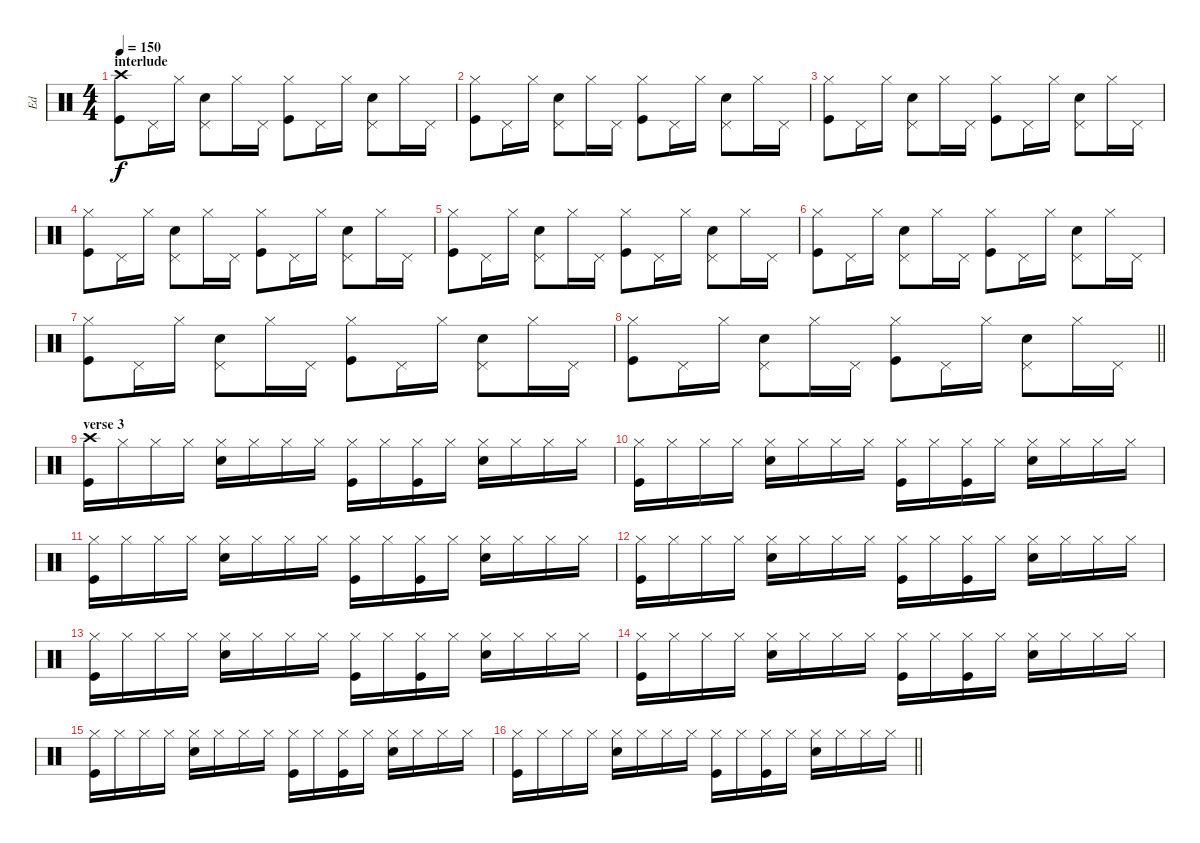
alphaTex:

\track ("Ed" "Ed") {instrument percussion}
\staff {score}
\articulation defaults
\ts (4 4)
\section ("" "interlude")
\tempo 150
\clef neutral
\ks c
("Crash high (hit)" "Kick (hit)").8{dy f} "Pedal Hi-Hat (hit)".16 "Hi-Hat (closed)".16 ("Pedal Hi-Hat (hit)" "Electric Snare (hit)").8 "Hi-Hat (closed)".16 "Pedal Hi-Hat (hit)".16 ("Hi-Hat (closed)" "Kick (hit)").8 "Pedal Hi-Hat (hit)".16 "Hi-Hat (closed)".16 ("Pedal Hi-Hat (hit)" "Electric Snare (hit)").8 "Hi-Hat (closed)".16 "Pedal Hi-Hat (hit)".16 |
("Hi-Hat (closed)" "Kick (hit)").8 "Pedal Hi-Hat (hit)".16 "Hi-Hat (closed)".16 ("Pedal Hi-Hat (hit)" "Electric Snare (hit)").8 "Hi-Hat (closed)".16 "Pedal Hi-Hat (hit)".16 ("Hi-Hat (closed)" "Kick (hit)").8 "Pedal Hi-Hat (hit)".16 "Hi-Hat (closed)".16 ("Pedal Hi-Hat (hit)" "Electric Snare (hit)").8 "Hi-Hat (closed)".16 "Pedal Hi-Hat (hit)".16 |
("Hi-Hat (closed)" "Kick (hit)").8 "Pedal Hi-Hat (hit)".16 "Hi-Hat (closed)".16 ("Pedal Hi-Hat (hit)" "Electric Snare (hit)").8 "Hi-Hat (closed)".16 "Pedal Hi-Hat (hit)".16 ("Hi-Hat (closed)" "Kick (hit)").8 "Pedal Hi-Hat (hit)".16 "Hi-Hat (closed)".16 ("Pedal Hi-Hat (hit)" "Electric Snare (hit)").8 "Hi-Hat (closed)".16 "Pedal Hi-Hat (hit)".16 |
("Hi-Hat (closed)" "Kick (hit)").8 "Pedal Hi-Hat (hit)".16 "Hi-Hat (closed)".16 ("Pedal Hi-Hat (hit)" "Electric Snare (hit)").8 "Hi-Hat (closed)".16 "Pedal Hi-Hat (hit)".16 ("Hi-Hat (closed)" "Kick (hit)").8 "Pedal Hi-Hat (hit)".16 "Hi-Hat (closed)".16 ("Pedal Hi-Hat (hit)" "Electric Snare (hit)").8 "Hi-Hat (closed)".16 "Pedal Hi-Hat (hit)".16 |
("Hi-Hat (closed)" "Kick (hit)").8 "Pedal Hi-Hat (hit)".16 "Hi-Hat (closed)".16 ("Pedal Hi-Hat (hit)" "Electric Snare (hit)").8 "Hi-Hat (closed)".16 "Pedal Hi-Hat (hit)".16 ("Hi-Hat (closed)" "Kick (hit)").8 "Pedal Hi-Hat (hit)".16 "Hi-Hat (closed)".16 ("Pedal Hi-Hat (hit)" "Electric Snare (hit)").8 "Hi-Hat (closed)".16 "Pedal Hi-Hat (hit)".16 |
("Hi-Hat (closed)" "Kick (hit)").8 "Pedal Hi-Hat (hit)".16 "Hi-Hat (closed)".16 ("Pedal Hi-Hat (hit)" "Electric Snare (hit)").8 "Hi-Hat (closed)".16 "Pedal Hi-Hat (hit)".16 ("Hi-Hat (closed)" "Kick (hit)").8 "Pedal Hi-Hat (hit)".16 "Hi-Hat (closed)".16 ("Pedal Hi-Hat (hit)" "Electric Snare (hit)").8 "Hi-Hat (closed)".16 "Pedal Hi-Hat (hit)".16 |
("Hi-Hat (closed)" "Kick (hit)").8 "Pedal Hi-Hat (hit)".16 "Hi-Hat (closed)".16 ("Pedal Hi-Hat (hit)" "Electric Snare (hit)").8 "Hi-Hat (closed)".16 "Pedal Hi-Hat (hit)".16 ("Hi-Hat (closed)" "Kick (hit)").8 "Pedal Hi-Hat (hit)".16 "Hi-Hat (closed)".16 ("Pedal Hi-Hat (hit)" "Electric Snare (hit)").8 "Hi-Hat (closed)".16 "Pedal Hi-Hat (hit)".16 |
\barLineRight lightlight
("Hi-Hat (closed)" "Kick (hit)").8 "Pedal Hi-Hat (hit)".16 "Hi-Hat (closed)".16 ("Pedal Hi-Hat (hit)" "Electric Snare (hit)").8 "Hi-Hat (closed)".16 "Pedal Hi-Hat (hit)".16 ("Hi-Hat (closed)" "Kick (hit)").8 "Pedal Hi-Hat (hit)".16 "Hi-Hat (closed)".16 ("Pedal Hi-Hat (hit)" "Electric Snare (hit)").8 "Hi-Hat (closed)".16 "Pedal Hi-Hat (hit)".16 |
\section ("" "verse 3")
("Crash high (hit)" "Kick (hit)").16 "Hi-Hat (closed)".16 "Hi-Hat (closed)".16 "Hi-Hat (closed)".16 ("Hi-Hat (closed)" "Electric Snare (hit)").16 "Hi-Hat (closed)".16 "Hi-Hat (closed)".16 "Hi-Hat (closed)".16 ("Hi-Hat (closed)" "Kick (hit)").16 "Hi-Hat (closed)".16 ("Hi-Hat (closed)" "Kick (hit)").16 "Hi-Hat (closed)".16 ("Hi-Hat (closed)" "Electric Snare (hit)").16 "Hi-Hat (closed)".16 "Hi-Hat (closed)".16 "Hi-Hat (closed)".16 |
("Hi-Hat (closed)" "Kick (hit)").16 "Hi-Hat (closed)".16 "Hi-Hat (closed)".16 "Hi-Hat (closed)".16 ("Hi-Hat (closed)" "Electric Snare (hit)").16 "Hi-Hat (closed)".16 "Hi-Hat (closed)".16 "Hi-Hat (closed)".16 ("Hi-Hat (closed)" "Kick (hit)").16 "Hi-Hat (closed)".16 ("Hi-Hat (closed)" "Kick (hit)").16 "Hi-Hat (closed)".16 ("Hi-Hat (closed)" "Electric Snare (hit)").16 "Hi-Hat (closed)".16 "Hi-Hat (closed)".16 "Hi-Hat (closed)".16 |
("Hi-Hat (closed)" "Kick (hit)").16 "Hi-Hat (closed)".16 "Hi-Hat (closed)".16 "Hi-Hat (closed)".16 ("Hi-Hat (closed)" "Electric Snare (hit)").16 "Hi-Hat (closed)".16 "Hi-Hat (closed)".16 "Hi-Hat (closed)".16 ("Hi-Hat (closed)" "Kick (hit)").16 "Hi-Hat (closed)".16 ("Hi-Hat (closed)" "Kick (hit)").16 "Hi-Hat (closed)".16 ("Hi-Hat (closed)" "Electric Snare (hit)").16 "Hi-Hat (closed)".16 "Hi-Hat (closed)".16 "Hi-Hat (closed)".16 |
("Hi-Hat (closed)" "Kick (hit)").16 "Hi-Hat (closed)".16 "Hi-Hat (closed)".16 "Hi-Hat (closed)".16 ("Hi-Hat (closed)" "Electric Snare (hit)").16 "Hi-Hat (closed)".16 "Hi-Hat (closed)".16 "Hi-Hat (closed)".16 ("Hi-Hat (closed)" "Kick (hit)").16 "Hi-Hat (closed)".16 ("Hi-Hat (closed)" "Kick (hit)").16 "Hi-Hat (closed)".16 ("Hi-Hat (closed)" "Electric Snare (hit)").16 "Hi-Hat (closed)".16 "Hi-Hat (closed)".16 "Hi-Hat (closed)".16 |
("Hi-Hat (closed)" "Kick (hit)").16 "Hi-Hat (closed)".16 "Hi-Hat (closed)".16 "Hi-Hat (closed)".16 ("Hi-Hat (closed)" "Electric Snare (hit)").16 "Hi-Hat (closed)".16 "Hi-Hat (closed)".16 "Hi-Hat (closed)".16 ("Hi-Hat (closed)" "Kick (hit)").16 "Hi-Hat (closed)".16 ("Hi-Hat (closed)" "Kick (hit)").16 "Hi-Hat (closed)".16 ("Hi-Hat (closed)" "Electric Snare (hit)").16 "Hi-Hat (closed)".16 "Hi-Hat (closed)".16 "Hi-Hat (closed)".16 |
("Hi-Hat (closed)" "Kick (hit)").16 "Hi-Hat (closed)".16 "Hi-Hat (closed)".16 "Hi-Hat (closed)".16 ("Hi-Hat (closed)" "Electric Snare (hit)").16 "Hi-Hat (closed)".16 "Hi-Hat (closed)".16 "Hi-Hat (closed)".16 ("Hi-Hat (closed)" "Kick (hit)").16 "Hi-Hat (closed)".16 ("Hi-Hat (closed)" "Kick (hit)").16 "Hi-Hat (closed)".16 ("Hi-Hat (closed)" "Electric Snare (hit)").16 "Hi-Hat (closed)".16 "Hi-Hat (closed)".16 "Hi-Hat (closed)".16 |
("Hi-Hat (closed)" "Kick (hit)").16 "Hi-Hat (closed)".16 "Hi-Hat (closed)".16 "Hi-Hat (closed)".16 ("Hi-Hat (closed)" "Electric Snare (hit)").16 "Hi-Hat (closed)".16 "Hi-Hat (closed)".16 "Hi-Hat (closed)".16 ("Hi-Hat (closed)" "Kick (hit)").16 "Hi-Hat (closed)".16 ("Hi-Hat (closed)" "Kick (hit)").16 "Hi-Hat (closed)".16 ("Hi-Hat (closed)" "Electric Snare (hit)").16 "Hi-Hat (closed)".16 "Hi-Hat (closed)".16 "Hi-Hat (closed)".16 |
\barLineRight lightlight
("Hi-Hat (closed)" "Kick (hit)").16 "Hi-Hat (closed)".16 "Hi-Hat (closed)".16 "Hi-Hat (closed)".16 ("Hi-Hat (closed)" "Electric Snare (hit)").16 "Hi-Hat (closed)".16 "Hi-Hat (closed)".16 "Hi-Hat (closed)".16 ("Hi-Hat (closed)" "Kick (hit)").16 "Hi-Hat (closed)".16 ("Hi-Hat (closed)" "Kick (hit)").16 "Hi-Hat (closed)".16 ("Hi-Hat (closed)" "Electric Snare (hit)").16 "Hi-Hat (closed)".16 "Hi-Hat (closed)".16 "Hi-Hat (closed)".16
